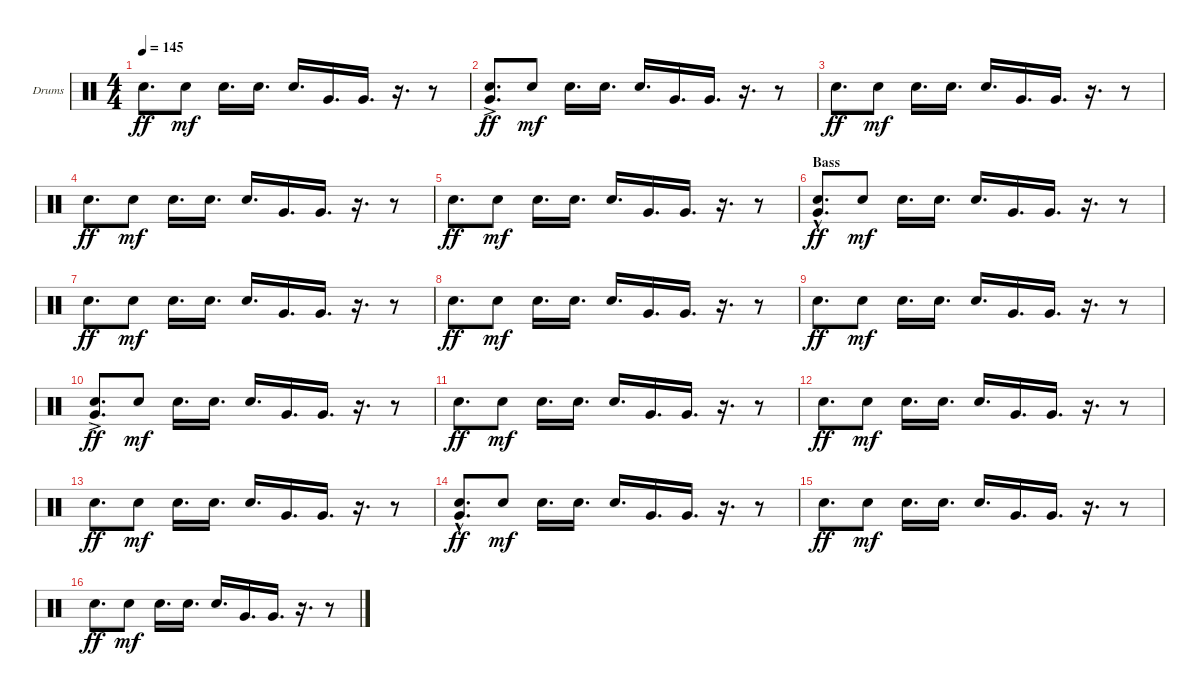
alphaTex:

\defaultSystemsLayout 4
\bracketExtendMode groupsimilarinstruments
\firstSystemTrackNameOrientation horizontal
\otherSystemsTrackNameOrientation horizontal
\track ("Drumkit" "Drums") {instrument percussion}
\staff {score}
\articulation defaults
\ts (4 4)
\tempo 145
\clef neutral
\ks c "Snare (hit) 2".8{d dy ff} "Snare (hit) 2".8{dy mf} "Snare (hit) 2".16{d} "Snare (hit) 2".16{d} "Snare (hit) 2".16{d} "Very Low Tom (hit)".16{d} "Very Low Tom (hit)".16{d}
r.16{d} r.8 |
("Snare (hit) 2" "Very Low Tom (hit)"{ac}).8{d dy ff} "Snare (hit) 2".8{dy mf} "Snare (hit) 2".16{d} "Snare (hit) 2".16{d} "Snare (hit) 2".16{d} "Very Low Tom (hit)".16{d} "Very Low Tom (hit)".16{d} r.16{d} r.8 |
"Snare (hit) 2".8{d dy ff} "Snare (hit) 2".8{dy mf} "Snare (hit) 2".16{d} "Snare (hit) 2".16{d} "Snare (hit) 2".16{d} "Very Low Tom (hit)".16{d} "Very Low Tom (hit)".16{d} r.16{d} r.8 |
"Snare (hit) 2".8{d dy ff} "Snare (hit) 2".8{dy mf} "Snare (hit) 2".16{d} "Snare (hit) 2".16{d} "Snare (hit) 2".16{d} "Very Low Tom (hit)".16{d} "Very Low Tom (hit)".16{d} r.16{d} r.8 |
"Snare (hit) 2".8{d dy ff} "Snare (hit) 2".8{dy mf} "Snare (hit) 2".16{d} "Snare (hit) 2".16{d} "Snare (hit) 2".16{d} "Very Low Tom (hit)".16{d} "Very Low Tom (hit)".16{d} r.16{d} r.8 |
\section ("" "Bass")
("Snare (hit) 2" "Very Low Tom (hit)"{hac}).8{d dy ff} "Snare (hit) 2".8{dy mf} "Snare (hit) 2".16{d} "Snare (hit) 2".16{d} "Snare (hit) 2".16{d} "Very Low Tom (hit)".16{d} "Very Low Tom (hit)".16{d} r.16{d} r.8 |
"Snare (hit) 2".8{d dy ff} "Snare (hit) 2".8{dy mf} "Snare (hit) 2".16{d} "Snare (hit) 2".16{d} "Snare (hit) 2".16{d} "Very Low Tom (hit)".16{d} "Very Low Tom (hit)".16{d} r.16{d} r.8 |
"Snare (hit) 2".8{d dy ff} "Snare (hit) 2".8{dy mf} "Snare (hit) 2".16{d} "Snare (hit) 2".16{d} "Snare (hit) 2".16{d} "Very Low Tom (hit)".16{d} "Very Low Tom (hit)".16{d} r.16{d} r.8 |
"Snare (hit) 2".8{d dy ff} "Snare (hit) 2".8{dy mf} "Snare (hit) 2".16{d} "Snare (hit) 2".16{d} "Snare (hit) 2".16{d} "Very Low Tom (hit)".16{d} "Very Low Tom (hit)".16{d} r.16{d} r.8 |
("Snare (hit) 2" "Very Low Tom (hit)"{ac}).8{d dy ff} "Snare (hit) 2".8{dy mf} "Snare (hit) 2".16{d} "Snare (hit) 2".16{d} "Snare (hit) 2".16{d} "Very Low Tom (hit)".16{d} "Very Low Tom (hit)".16{d} r.16{d} r.8 |
"Snare (hit) 2".8{d dy ff} "Snare (hit) 2".8{dy mf} "Snare (hit) 2".16{d} "Snare (hit) 2".16{d} "Snare (hit) 2".16{d} "Very Low Tom (hit)".16{d} "Very Low Tom (hit)".16{d} r.16{d} r.8 |
"Snare (hit) 2".8{d dy ff} "Snare (hit) 2".8{dy mf} "Snare (hit) 2".16{d} "Snare (hit) 2".16{d} "Snare (hit) 2".16{d} "Very Low Tom (hit)".16{d} "Very Low Tom (hit)".16{d} r.16{d} r.8 |
"Snare (hit) 2".8{d dy ff} "Snare (hit) 2".8{dy mf} "Snare (hit) 2".16{d} "Snare (hit) 2".16{d} "Snare (hit) 2".16{d} "Very Low Tom (hit)".16{d} "Very Low Tom (hit)".16{d} r.16{d} r.8 |
("Snare (hit) 2" "Very Low Tom (hit)"{hac}).8{d dy ff} "Snare (hit) 2".8{dy mf} "Snare (hit) 2".16{d} "Snare (hit) 2".16{d} "Snare (hit) 2".16{d} "Very Low Tom (hit)".16{d} "Very Low Tom (hit)".16{d} r.16{d} r.8 |
"Snare (hit) 2".8{d dy ff} "Snare (hit) 2".8{dy mf} "Snare (hit) 2".16{d} "Snare (hit) 2".16{d} "Snare (hit) 2".16{d} "Very Low Tom (hit)".16{d} "Very Low Tom (hit)".16{d} r.16{d} r.8 |
"Snare (hit) 2".8{d dy ff} "Snare (hit) 2".8{dy mf} "Snare (hit) 2".16{d} "Snare (hit) 2".16{d} "Snare (hit) 2".16{d} "Very Low Tom (hit)".16{d} "Very Low Tom (hit)".16{d} r.16{d} r.8
